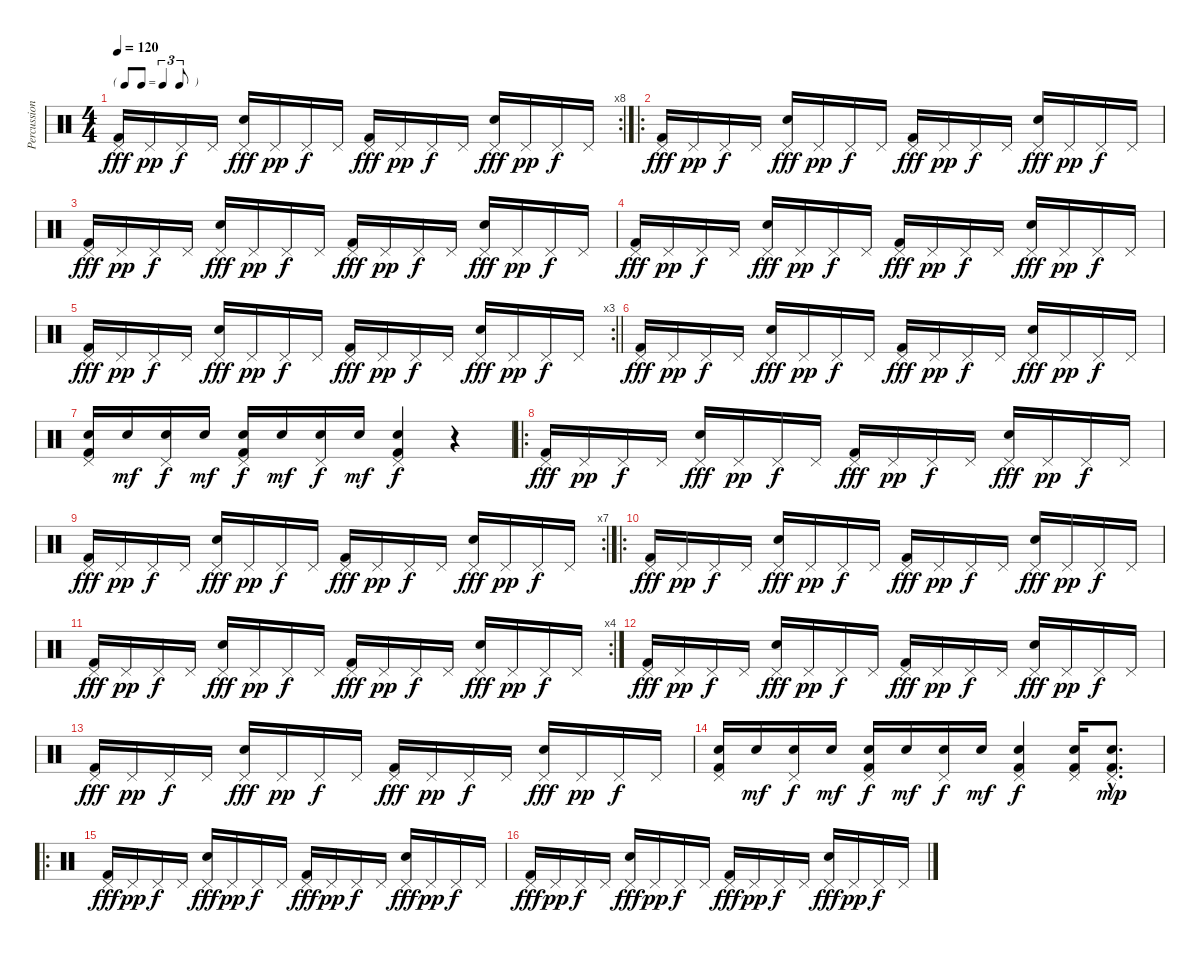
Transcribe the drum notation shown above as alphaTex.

\track ("Percussions" "Percussion") {instrument percussion}
\staff {score}
\articulation defaults
\rc 8
\ts (4 4)
\tf triplet8th
\tempo 120
\clef neutral
\ks c
("Pedal Hi-Hat (hit)" "Kick (hit) 2").16{dy fff} "Pedal Hi-Hat (hit)".16{dy pp} "Pedal Hi-Hat (hit)".16{dy f} "Pedal Hi-Hat (hit)".16 ("Pedal Hi-Hat (hit)" "Hand Clap (hit)").16{dy fff} "Pedal Hi-Hat (hit)".16{dy pp} "Pedal Hi-Hat (hit)".16{dy f} "Pedal Hi-Hat (hit)".16 ("Pedal Hi-Hat (hit)" "Kick (hit) 2").16{dy fff} "Pedal Hi-Hat (hit)".16{dy pp} "Pedal Hi-Hat (hit)".16{dy f} "Pedal Hi-Hat (hit)".16 ("Pedal Hi-Hat (hit)" "Hand Clap (hit)").16{dy fff} "Pedal Hi-Hat (hit)".16{dy pp} "Pedal Hi-Hat (hit)".16{dy f} "Pedal Hi-Hat (hit)".16 |
\ro
("Pedal Hi-Hat (hit)" "Kick (hit) 2").16{dy fff} "Pedal Hi-Hat (hit)".16{dy pp} "Pedal Hi-Hat (hit)".16{dy f} "Pedal Hi-Hat (hit)".16 ("Pedal Hi-Hat (hit)" "Hand Clap (hit)").16{dy fff} "Pedal Hi-Hat (hit)".16{dy pp} "Pedal Hi-Hat (hit)".16{dy f} "Pedal Hi-Hat (hit)".16 ("Pedal Hi-Hat (hit)" "Kick (hit) 2").16{dy fff} "Pedal Hi-Hat (hit)".16{dy pp} "Pedal Hi-Hat (hit)".16{dy f} "Pedal Hi-Hat (hit)".16 ("Pedal Hi-Hat (hit)" "Hand Clap (hit)").16{dy fff} "Pedal Hi-Hat (hit)".16{dy pp} "Pedal Hi-Hat (hit)".16{dy f} "Pedal Hi-Hat (hit)".16 |
("Pedal Hi-Hat (hit)" "Kick (hit) 2").16{dy fff} "Pedal Hi-Hat (hit)".16{dy pp} "Pedal Hi-Hat (hit)".16{dy f} "Pedal Hi-Hat (hit)".16 ("Pedal Hi-Hat (hit)" "Hand Clap (hit)").16{dy fff} "Pedal Hi-Hat (hit)".16{dy pp} "Pedal Hi-Hat (hit)".16{dy f} "Pedal Hi-Hat (hit)".16 ("Pedal Hi-Hat (hit)" "Kick (hit) 2").16{dy fff} "Pedal Hi-Hat (hit)".16{dy pp} "Pedal Hi-Hat (hit)".16{dy f} "Pedal Hi-Hat (hit)".16 ("Pedal Hi-Hat (hit)" "Hand Clap (hit)").16{dy fff} "Pedal Hi-Hat (hit)".16{dy pp} "Pedal Hi-Hat (hit)".16{dy f} "Pedal Hi-Hat (hit)".16 |
("Pedal Hi-Hat (hit)" "Kick (hit) 2").16{dy fff} "Pedal Hi-Hat (hit)".16{dy pp} "Pedal Hi-Hat (hit)".16{dy f} "Pedal Hi-Hat (hit)".16 ("Pedal Hi-Hat (hit)" "Hand Clap (hit)").16{dy fff} "Pedal Hi-Hat (hit)".16{dy pp} "Pedal Hi-Hat (hit)".16{dy f} "Pedal Hi-Hat (hit)".16 ("Pedal Hi-Hat (hit)" "Kick (hit) 2").16{dy fff} "Pedal Hi-Hat (hit)".16{dy pp} "Pedal Hi-Hat (hit)".16{dy f} "Pedal Hi-Hat (hit)".16 ("Pedal Hi-Hat (hit)" "Hand Clap (hit)").16{dy fff} "Pedal Hi-Hat (hit)".16{dy pp} "Pedal Hi-Hat (hit)".16{dy f} "Pedal Hi-Hat (hit)".16 |
\rc 3
\barLineRight lightlight
("Pedal Hi-Hat (hit)" "Kick (hit) 2").16{dy fff} "Pedal Hi-Hat (hit)".16{dy pp} "Pedal Hi-Hat (hit)".16{dy f} "Pedal Hi-Hat (hit)".16 ("Pedal Hi-Hat (hit)" "Hand Clap (hit)").16{dy fff} "Pedal Hi-Hat (hit)".16{dy pp} "Pedal Hi-Hat (hit)".16{dy f} "Pedal Hi-Hat (hit)".16 ("Pedal Hi-Hat (hit)" "Kick (hit) 2").16{dy fff} "Pedal Hi-Hat (hit)".16{dy pp} "Pedal Hi-Hat (hit)".16{dy f} "Pedal Hi-Hat (hit)".16 ("Pedal Hi-Hat (hit)" "Hand Clap (hit)").16{dy fff} "Pedal Hi-Hat (hit)".16{dy pp} "Pedal Hi-Hat (hit)".16{dy f} "Pedal Hi-Hat (hit)".16 |
("Pedal Hi-Hat (hit)" "Kick (hit) 2").16{dy fff} "Pedal Hi-Hat (hit)".16{dy pp} "Pedal Hi-Hat (hit)".16{dy f} "Pedal Hi-Hat (hit)".16 ("Pedal Hi-Hat (hit)" "Hand Clap (hit)").16{dy fff} "Pedal Hi-Hat (hit)".16{dy pp} "Pedal Hi-Hat (hit)".16{dy f} "Pedal Hi-Hat (hit)".16 ("Pedal Hi-Hat (hit)" "Kick (hit) 2").16{dy fff} "Pedal Hi-Hat (hit)".16{dy pp} "Pedal Hi-Hat (hit)".16{dy f} "Pedal Hi-Hat (hit)".16 ("Pedal Hi-Hat (hit)" "Hand Clap (hit)").16{dy fff} "Pedal Hi-Hat (hit)".16{dy pp} "Pedal Hi-Hat (hit)".16{dy f} "Pedal Hi-Hat (hit)".16 |
("Snare (hit) 2" "Pedal Hi-Hat (hit)" "Kick (hit) 2").16 "Snare (hit) 2".16{dy mf} ("Snare (hit) 2" "Pedal Hi-Hat (hit)").16{dy f} "Snare (hit) 2".16{dy mf} ("Snare (hit) 2" "Pedal Hi-Hat (hit)" "Kick (hit) 2").16{dy f} "Snare (hit) 2".16{dy mf} ("Snare (hit) 2" "Pedal Hi-Hat (hit)").16{dy f} "Snare (hit) 2".16{dy mf} ("Snare (hit) 2" "Pedal Hi-Hat (hit)" "Kick (hit) 2").4{dy f} r.4 |
\ro
("Pedal Hi-Hat (hit)" "Kick (hit) 2").16{dy fff} "Pedal Hi-Hat (hit)".16{dy pp} "Pedal Hi-Hat (hit)".16{dy f} "Pedal Hi-Hat (hit)".16 ("Pedal Hi-Hat (hit)" "Hand Clap (hit)").16{dy fff} "Pedal Hi-Hat (hit)".16{dy pp} "Pedal Hi-Hat (hit)".16{dy f} "Pedal Hi-Hat (hit)".16 ("Pedal Hi-Hat (hit)" "Kick (hit) 2").16{dy fff} "Pedal Hi-Hat (hit)".16{dy pp} "Pedal Hi-Hat (hit)".16{dy f} "Pedal Hi-Hat (hit)".16 ("Pedal Hi-Hat (hit)" "Hand Clap (hit)").16{dy fff} "Pedal Hi-Hat (hit)".16{dy pp} "Pedal Hi-Hat (hit)".16{dy f} "Pedal Hi-Hat (hit)".16 |
\rc 7
("Pedal Hi-Hat (hit)" "Kick (hit) 2").16{dy fff} "Pedal Hi-Hat (hit)".16{dy pp} "Pedal Hi-Hat (hit)".16{dy f} "Pedal Hi-Hat (hit)".16 ("Pedal Hi-Hat (hit)" "Hand Clap (hit)").16{dy fff} "Pedal Hi-Hat (hit)".16{dy pp} "Pedal Hi-Hat (hit)".16{dy f} "Pedal Hi-Hat (hit)".16 ("Pedal Hi-Hat (hit)" "Kick (hit) 2").16{dy fff} "Pedal Hi-Hat (hit)".16{dy pp} "Pedal Hi-Hat (hit)".16{dy f} "Pedal Hi-Hat (hit)".16 ("Pedal Hi-Hat (hit)" "Hand Clap (hit)").16{dy fff} "Pedal Hi-Hat (hit)".16{dy pp} "Pedal Hi-Hat (hit)".16{dy f} "Pedal Hi-Hat (hit)".16 |
\ro
("Pedal Hi-Hat (hit)" "Kick (hit) 2").16{dy fff} "Pedal Hi-Hat (hit)".16{dy pp} "Pedal Hi-Hat (hit)".16{dy f} "Pedal Hi-Hat (hit)".16 ("Pedal Hi-Hat (hit)" "Hand Clap (hit)").16{dy fff} "Pedal Hi-Hat (hit)".16{dy pp} "Pedal Hi-Hat (hit)".16{dy f} "Pedal Hi-Hat (hit)".16 ("Pedal Hi-Hat (hit)" "Kick (hit) 2").16{dy fff} "Pedal Hi-Hat (hit)".16{dy pp} "Pedal Hi-Hat (hit)".16{dy f} "Pedal Hi-Hat (hit)".16 ("Pedal Hi-Hat (hit)" "Hand Clap (hit)").16{dy fff} "Pedal Hi-Hat (hit)".16{dy pp} "Pedal Hi-Hat (hit)".16{dy f} "Pedal Hi-Hat (hit)".16 |
\rc 4
("Pedal Hi-Hat (hit)" "Kick (hit) 2").16{dy fff} "Pedal Hi-Hat (hit)".16{dy pp} "Pedal Hi-Hat (hit)".16{dy f} "Pedal Hi-Hat (hit)".16 ("Pedal Hi-Hat (hit)" "Hand Clap (hit)").16{dy fff} "Pedal Hi-Hat (hit)".16{dy pp} "Pedal Hi-Hat (hit)".16{dy f} "Pedal Hi-Hat (hit)".16 ("Pedal Hi-Hat (hit)" "Kick (hit) 2").16{dy fff} "Pedal Hi-Hat (hit)".16{dy pp} "Pedal Hi-Hat (hit)".16{dy f} "Pedal Hi-Hat (hit)".16 ("Pedal Hi-Hat (hit)" "Hand Clap (hit)").16{dy fff} "Pedal Hi-Hat (hit)".16{dy pp} "Pedal Hi-Hat (hit)".16{dy f} "Pedal Hi-Hat (hit)".16 |
("Pedal Hi-Hat (hit)" "Kick (hit) 2").16{dy fff} "Pedal Hi-Hat (hit)".16{dy pp} "Pedal Hi-Hat (hit)".16{dy f} "Pedal Hi-Hat (hit)".16 ("Pedal Hi-Hat (hit)" "Hand Clap (hit)").16{dy fff} "Pedal Hi-Hat (hit)".16{dy pp} "Pedal Hi-Hat (hit)".16{dy f} "Pedal Hi-Hat (hit)".16 ("Pedal Hi-Hat (hit)" "Kick (hit) 2").16{dy fff} "Pedal Hi-Hat (hit)".16{dy pp} "Pedal Hi-Hat (hit)".16{dy f} "Pedal Hi-Hat (hit)".16 ("Pedal Hi-Hat (hit)" "Hand Clap (hit)").16{dy fff} "Pedal Hi-Hat (hit)".16{dy pp} "Pedal Hi-Hat (hit)".16{dy f} "Pedal Hi-Hat (hit)".16 |
("Pedal Hi-Hat (hit)" "Kick (hit) 2").16{dy fff} "Pedal Hi-Hat (hit)".16{dy pp} "Pedal Hi-Hat (hit)".16{dy f} "Pedal Hi-Hat (hit)".16 ("Pedal Hi-Hat (hit)" "Hand Clap (hit)").16{dy fff} "Pedal Hi-Hat (hit)".16{dy pp} "Pedal Hi-Hat (hit)".16{dy f} "Pedal Hi-Hat (hit)".16 ("Pedal Hi-Hat (hit)" "Kick (hit) 2").16{dy fff} "Pedal Hi-Hat (hit)".16{dy pp} "Pedal Hi-Hat (hit)".16{dy f} "Pedal Hi-Hat (hit)".16 ("Pedal Hi-Hat (hit)" "Hand Clap (hit)").16{dy fff} "Pedal Hi-Hat (hit)".16{dy pp} "Pedal Hi-Hat (hit)".16{dy f} "Pedal Hi-Hat (hit)".16 |
("Snare (hit) 2" "Pedal Hi-Hat (hit)" "Kick (hit) 2").16 "Snare (hit) 2".16{dy mf} ("Snare (hit) 2" "Pedal Hi-Hat (hit)").16{dy f} "Snare (hit) 2".16{dy mf} ("Snare (hit) 2" "Pedal Hi-Hat (hit)" "Kick (hit) 2").16{dy f} "Snare (hit) 2".16{dy mf} ("Snare (hit) 2" "Pedal Hi-Hat (hit)").16{dy f} "Snare (hit) 2".16{dy mf} ("Snare (hit) 2" "Pedal Hi-Hat (hit)" "Kick (hit) 2").4{dy f} ("Snare (hit) 2" "Pedal Hi-Hat (hit)" "Kick (hit) 2").16 ("Snare (hit) 2"{hac} "Pedal Hi-Hat (hit)"{hac} "Kick (hit) 2"{hac}).8{d dy mp} |
\ro
("Pedal Hi-Hat (hit)" "Kick (hit) 2").16{dy fff} "Pedal Hi-Hat (hit)".16{dy pp} "Pedal Hi-Hat (hit)".16{dy f} "Pedal Hi-Hat (hit)".16 ("Pedal Hi-Hat (hit)" "Hand Clap (hit)").16{dy fff} "Pedal Hi-Hat (hit)".16{dy pp} "Pedal Hi-Hat (hit)".16{dy f} "Pedal Hi-Hat (hit)".16 ("Pedal Hi-Hat (hit)" "Kick (hit) 2").16{dy fff} "Pedal Hi-Hat (hit)".16{dy pp} "Pedal Hi-Hat (hit)".16{dy f} "Pedal Hi-Hat (hit)".16 ("Pedal Hi-Hat (hit)" "Hand Clap (hit)").16{dy fff} "Pedal Hi-Hat (hit)".16{dy pp} "Pedal Hi-Hat (hit)".16{dy f} "Pedal Hi-Hat (hit)".16 |
("Pedal Hi-Hat (hit)" "Kick (hit) 2").16{dy fff} "Pedal Hi-Hat (hit)".16{dy pp} "Pedal Hi-Hat (hit)".16{dy f} "Pedal Hi-Hat (hit)".16 ("Pedal Hi-Hat (hit)" "Hand Clap (hit)").16{dy fff} "Pedal Hi-Hat (hit)".16{dy pp} "Pedal Hi-Hat (hit)".16{dy f} "Pedal Hi-Hat (hit)".16 ("Pedal Hi-Hat (hit)" "Kick (hit) 2").16{dy fff} "Pedal Hi-Hat (hit)".16{dy pp} "Pedal Hi-Hat (hit)".16{dy f} "Pedal Hi-Hat (hit)".16 ("Pedal Hi-Hat (hit)" "Hand Clap (hit)").16{dy fff} "Pedal Hi-Hat (hit)".16{dy pp} "Pedal Hi-Hat (hit)".16{dy f} "Pedal Hi-Hat (hit)".16
